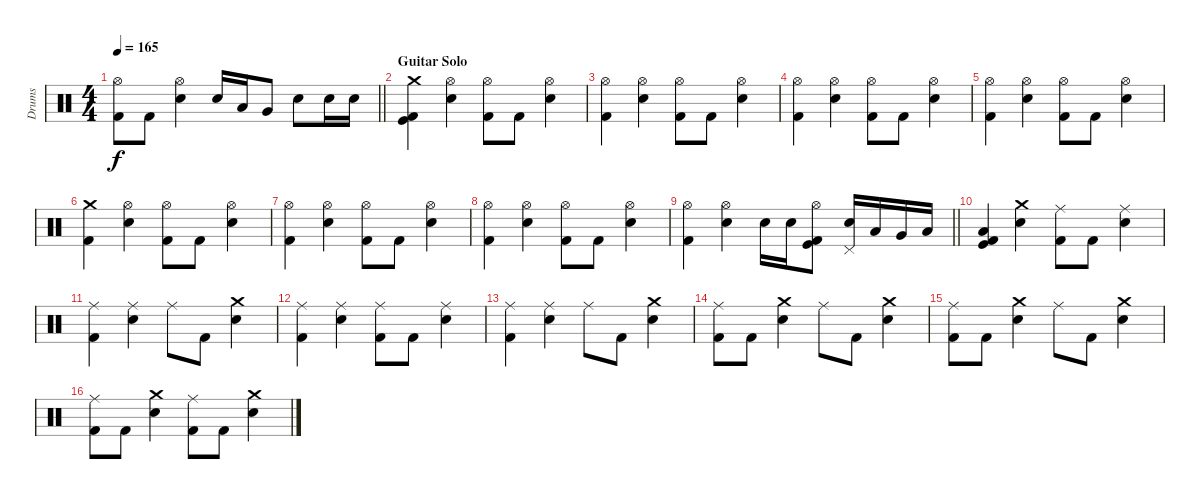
\track ("Drums" "Drums") {instrument percussion}
\staff {score}
\articulation defaults
\ts (4 4)
\tempo 165
\clef neutral
\barLineRight lightlight
\ks c
("Hi-Hat (open)" "Kick (hit) 2").8{dy f} "Kick (hit) 2".8 ("Hi-Hat (open)" "Electric Snare (hit)").4 "Electric Snare (hit)".16 "Low Tom (hit)".16 "Very Low Tom (hit)".8 "Electric Snare (hit)".8 "Electric Snare (hit)".16 "Electric Snare (hit)".16 |
\section ("" "Guitar Solo")
("Kick (hit)" "Kick (hit) 2" "Crash medium (hit)").4 ("Hi-Hat (open)" "Electric Snare (hit)").4 ("Hi-Hat (open)" "Kick (hit) 2").8 "Kick (hit) 2".8 ("Hi-Hat (open)" "Electric Snare (hit)").4 |
("Hi-Hat (open)" "Kick (hit) 2").4 ("Hi-Hat (open)" "Electric Snare (hit)").4 ("Hi-Hat (open)" "Kick (hit) 2").8 "Kick (hit) 2".8 ("Hi-Hat (open)" "Electric Snare (hit)").4 |
("Hi-Hat (open)" "Kick (hit) 2").4 ("Hi-Hat (open)" "Electric Snare (hit)").4 ("Hi-Hat (open)" "Kick (hit) 2").8 "Kick (hit) 2".8 ("Hi-Hat (open)" "Electric Snare (hit)").4 |
("Hi-Hat (open)" "Kick (hit) 2").4 ("Hi-Hat (open)" "Electric Snare (hit)").4 ("Hi-Hat (open)" "Kick (hit) 2").8 "Kick (hit) 2".8 ("Hi-Hat (open)" "Electric Snare (hit)").4 |
("Crash medium (hit)" "Kick (hit) 2").4 ("Hi-Hat (open)" "Electric Snare (hit)").4 ("Hi-Hat (open)" "Kick (hit) 2").8 "Kick (hit) 2".8 ("Hi-Hat (open)" "Electric Snare (hit)").4 |
("Hi-Hat (open)" "Kick (hit) 2").4 ("Hi-Hat (open)" "Electric Snare (hit)").4 ("Hi-Hat (open)" "Kick (hit) 2").8 "Kick (hit) 2".8 ("Hi-Hat (open)" "Electric Snare (hit)").4 |
("Hi-Hat (open)" "Kick (hit) 2").4 ("Hi-Hat (open)" "Electric Snare (hit)").4 ("Hi-Hat (open)" "Kick (hit) 2").8 "Kick (hit) 2".8 ("Hi-Hat (open)" "Electric Snare (hit)").4 |
\barLineRight lightlight
("Hi-Hat (open)" "Kick (hit) 2").4 ("Hi-Hat (open)" "Electric Snare (hit)").4 "Electric Snare (hit)".16 "Electric Snare (hit)".16 ("Hi-Hat (open)" "Kick (hit) 2" "Kick (hit)").8 ("Pedal Hi-Hat (hit)" "Electric Snare (hit)").16 "Low Tom (hit)".16 "Very Low Tom (hit)".16 "Low Floor Tom (hit)".16 |
("Kick (hit)" "Kick (hit) 2" "Low Floor Tom (hit)").4 ("Crash medium (hit)" "Electric Snare (hit)").4 ("Ride (middle)" "Kick (hit) 2").8 "Kick (hit) 2".8 ("Ride (middle)" "Electric Snare (hit)").4 |
("Ride (middle)" "Kick (hit) 2").4 ("Ride (middle)" "Electric Snare (hit)").4 "Ride (middle)".8 "Kick (hit) 2".8 ("Crash medium (hit)" "Electric Snare (hit)").4 |
("Ride (middle)" "Kick (hit) 2").4 ("Ride (middle)" "Electric Snare (hit)").4 ("Ride (middle)" "Kick (hit) 2").8 "Kick (hit) 2".8 ("Ride (middle)" "Electric Snare (hit)").4 |
("Ride (middle)" "Kick (hit) 2").4 ("Ride (middle)" "Electric Snare (hit)").4 "Ride (middle)".8 "Kick (hit) 2".8 ("Crash medium (hit)" "Electric Snare (hit)").4 |
("Ride (middle)" "Kick (hit) 2").8 "Kick (hit) 2".8 ("Crash medium (hit)" "Electric Snare (hit)").4 "Ride (middle)".8 "Kick (hit) 2".8 ("Crash medium (hit)" "Electric Snare (hit)").4 |
("Ride (middle)" "Kick (hit) 2").8 "Kick (hit) 2".8 ("Crash medium (hit)" "Electric Snare (hit)").4 "Ride (middle)".8 "Kick (hit) 2".8 ("Crash medium (hit)" "Electric Snare (hit)").4 |
("Ride (middle)" "Kick (hit) 2").8 "Kick (hit) 2".8 ("Crash medium (hit)" "Electric Snare (hit)").4 ("Ride (middle)" "Kick (hit) 2").8 "Kick (hit) 2".8 ("Crash medium (hit)" "Electric Snare (hit)").4
